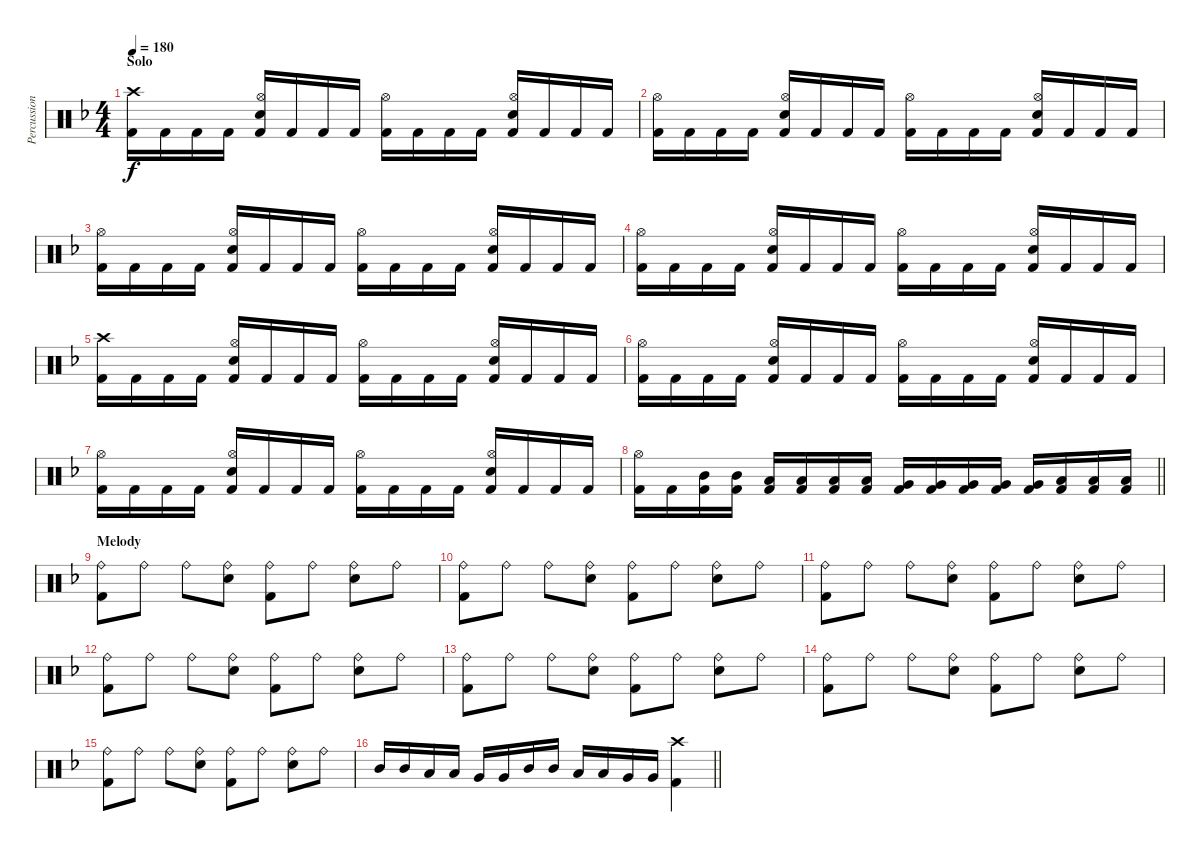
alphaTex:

\track ("Percussion" "Percussion") {instrument percussion}
\staff {score}
\articulation defaults
\ts (4 4)
\section ("" "Solo")
\tempo 180
\clef neutral
\ks dminor
("Crash high (hit)" "Kick (hit) 2").16{dy f} "Kick (hit) 2".16 "Kick (hit) 2".16 "Kick (hit) 2".16 ("Hi-Hat (open)" "Snare (hit) 2" "Kick (hit) 2").16 "Kick (hit) 2".16 "Kick (hit) 2".16 "Kick (hit) 2".16 ("Hi-Hat (open)" "Kick (hit) 2").16 "Kick (hit) 2".16 "Kick (hit) 2".16 "Kick (hit) 2".16 ("Hi-Hat (open)" "Snare (hit) 2" "Kick (hit) 2").16 "Kick (hit) 2".16 "Kick (hit) 2".16 "Kick (hit) 2".16 |
("Hi-Hat (open)" "Kick (hit) 2").16 "Kick (hit) 2".16 "Kick (hit) 2".16 "Kick (hit) 2".16 ("Hi-Hat (open)" "Snare (hit) 2" "Kick (hit) 2").16 "Kick (hit) 2".16 "Kick (hit) 2".16 "Kick (hit) 2".16 ("Hi-Hat (open)" "Kick (hit) 2").16 "Kick (hit) 2".16 "Kick (hit) 2".16 "Kick (hit) 2".16 ("Hi-Hat (open)" "Snare (hit) 2" "Kick (hit) 2").16 "Kick (hit) 2".16 "Kick (hit) 2".16 "Kick (hit) 2".16 |
("Hi-Hat (open)" "Kick (hit) 2").16 "Kick (hit) 2".16 "Kick (hit) 2".16 "Kick (hit) 2".16 ("Hi-Hat (open)" "Snare (hit) 2" "Kick (hit) 2").16 "Kick (hit) 2".16 "Kick (hit) 2".16 "Kick (hit) 2".16 ("Hi-Hat (open)" "Kick (hit) 2").16 "Kick (hit) 2".16 "Kick (hit) 2".16 "Kick (hit) 2".16 ("Hi-Hat (open)" "Snare (hit) 2" "Kick (hit) 2").16 "Kick (hit) 2".16 "Kick (hit) 2".16 "Kick (hit) 2".16 |
("Hi-Hat (open)" "Kick (hit) 2").16 "Kick (hit) 2".16 "Kick (hit) 2".16 "Kick (hit) 2".16 ("Hi-Hat (open)" "Snare (hit) 2" "Kick (hit) 2").16 "Kick (hit) 2".16 "Kick (hit) 2".16 "Kick (hit) 2".16 ("Hi-Hat (open)" "Kick (hit) 2").16 "Kick (hit) 2".16 "Kick (hit) 2".16 "Kick (hit) 2".16 ("Hi-Hat (open)" "Snare (hit) 2" "Kick (hit) 2").16 "Kick (hit) 2".16 "Kick (hit) 2".16 "Kick (hit) 2".16 |
("Crash high (hit)" "Kick (hit) 2").16 "Kick (hit) 2".16 "Kick (hit) 2".16 "Kick (hit) 2".16 ("Hi-Hat (open)" "Snare (hit) 2" "Kick (hit) 2").16 "Kick (hit) 2".16 "Kick (hit) 2".16 "Kick (hit) 2".16 ("Hi-Hat (open)" "Kick (hit) 2").16 "Kick (hit) 2".16 "Kick (hit) 2".16 "Kick (hit) 2".16 ("Hi-Hat (open)" "Snare (hit) 2" "Kick (hit) 2").16 "Kick (hit) 2".16 "Kick (hit) 2".16 "Kick (hit) 2".16 |
("Hi-Hat (open)" "Kick (hit) 2").16 "Kick (hit) 2".16 "Kick (hit) 2".16 "Kick (hit) 2".16 ("Hi-Hat (open)" "Snare (hit) 2" "Kick (hit) 2").16 "Kick (hit) 2".16 "Kick (hit) 2".16 "Kick (hit) 2".16 ("Hi-Hat (open)" "Kick (hit) 2").16 "Kick (hit) 2".16 "Kick (hit) 2".16 "Kick (hit) 2".16 ("Hi-Hat (open)" "Snare (hit) 2" "Kick (hit) 2").16 "Kick (hit) 2".16 "Kick (hit) 2".16 "Kick (hit) 2".16 |
("Hi-Hat (open)" "Kick (hit) 2").16 "Kick (hit) 2".16 "Kick (hit) 2".16 "Kick (hit) 2".16 ("Hi-Hat (open)" "Snare (hit) 2" "Kick (hit) 2").16 "Kick (hit) 2".16 "Kick (hit) 2".16 "Kick (hit) 2".16 ("Hi-Hat (open)" "Kick (hit) 2").16 "Kick (hit) 2".16 "Kick (hit) 2".16 "Kick (hit) 2".16 ("Hi-Hat (open)" "Snare (hit) 2" "Kick (hit) 2").16 "Kick (hit) 2".16 "Kick (hit) 2".16 "Kick (hit) 2".16 |
\barLineRight lightlight
("Hi-Hat (open)" "Kick (hit) 2").16 "Kick (hit) 2".16 ("Mid Tom (hit)" "Kick (hit) 2").16 ("Mid Tom (hit)" "Kick (hit) 2").16 ("Low Tom (hit)" "Kick (hit) 2").16 ("Low Tom (hit)" "Kick (hit) 2").16 ("Low Tom (hit)" "Kick (hit) 2").16 ("Low Tom (hit)" "Kick (hit) 2").16 ("Very Low Tom (hit)" "Kick (hit) 2").16 ("Very Low Tom (hit)" "Kick (hit) 2").16 ("Very Low Tom (hit)" "Kick (hit) 2").16 ("Very Low Tom (hit)" "Kick (hit) 2").16 ("Very Low Tom (hit)" "Kick (hit) 2").16 ("Low Floor Tom (hit)" "Kick (hit) 2").16 ("Low Floor Tom (hit)" "Kick (hit) 2").16 ("Low Floor Tom (hit)" "Kick (hit) 2").16 |
\section ("" "Melody")
("Ride (bell)" "Kick (hit) 2").8 "Ride (bell)".8 "Ride (bell)".8 ("Ride (bell)" "Snare (hit) 2").8 ("Ride (bell)" "Kick (hit) 2").8 "Ride (bell)".8 ("Ride (bell)" "Snare (hit) 2").8 "Ride (bell)".8 |
("Ride (bell)" "Kick (hit) 2").8 "Ride (bell)".8 "Ride (bell)".8 ("Ride (bell)" "Snare (hit) 2").8 ("Ride (bell)" "Kick (hit) 2").8 "Ride (bell)".8 ("Ride (bell)" "Snare (hit) 2").8 "Ride (bell)".8 |
("Ride (bell)" "Kick (hit) 2").8 "Ride (bell)".8 "Ride (bell)".8 ("Ride (bell)" "Snare (hit) 2").8 ("Ride (bell)" "Kick (hit) 2").8 "Ride (bell)".8 ("Ride (bell)" "Snare (hit) 2").8 "Ride (bell)".8 |
("Ride (bell)" "Kick (hit) 2").8 "Ride (bell)".8 "Ride (bell)".8 ("Ride (bell)" "Snare (hit) 2").8 ("Ride (bell)" "Kick (hit) 2").8 "Ride (bell)".8 ("Ride (bell)" "Snare (hit) 2").8 "Ride (bell)".8 |
("Ride (bell)" "Kick (hit) 2").8 "Ride (bell)".8 "Ride (bell)".8 ("Ride (bell)" "Snare (hit) 2").8 ("Ride (bell)" "Kick (hit) 2").8 "Ride (bell)".8 ("Ride (bell)" "Snare (hit) 2").8 "Ride (bell)".8 |
("Ride (bell)" "Kick (hit) 2").8 "Ride (bell)".8 "Ride (bell)".8 ("Ride (bell)" "Snare (hit) 2").8 ("Ride (bell)" "Kick (hit) 2").8 "Ride (bell)".8 ("Ride (bell)" "Snare (hit) 2").8 "Ride (bell)".8 |
("Ride (bell)" "Kick (hit) 2").8 "Ride (bell)".8 "Ride (bell)".8 ("Ride (bell)" "Snare (hit) 2").8 ("Ride (bell)" "Kick (hit) 2").8 "Ride (bell)".8 ("Ride (bell)" "Snare (hit) 2").8 "Ride (bell)".8 |
\barLineRight lightlight "Mid Tom (hit)".16 "Mid Tom (hit)".16 "Low Tom (hit)".16 "Low Tom (hit)".16 "Very Low Tom (hit)".16 "Very Low Tom (hit)".16 "Mid Tom (hit)".16 "Mid Tom (hit)".16 "Low Tom (hit)".16 "Low Tom (hit)".16 "Very Low Tom (hit)".16 "Very Low Tom (hit)".16
("Crash high (hit)" "Kick (hit) 2").4
